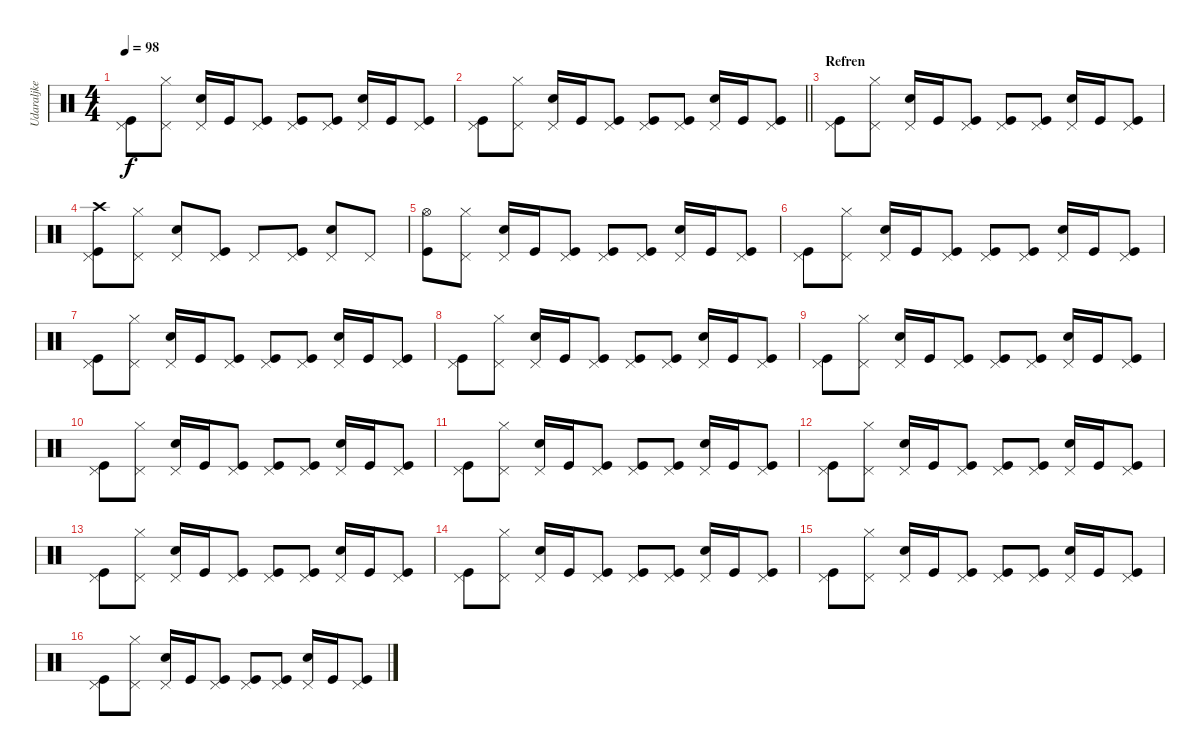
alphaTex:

\track ("Udaraljke" "Udaraljke") {instrument percussion}
\staff {score}
\articulation defaults
\ts (4 4)
\tempo 98
\clef neutral
\ks c
("Pedal Hi-Hat (hit)" "Kick (hit)").8{dy f} ("Pedal Hi-Hat (hit)" "Hi-Hat (closed)").8 ("Pedal Hi-Hat (hit)" "Electric Snare (hit)").16 "Kick (hit)".16 ("Pedal Hi-Hat (hit)" "Kick (hit)").8 ("Pedal Hi-Hat (hit)" "Kick (hit)").8 ("Pedal Hi-Hat (hit)" "Kick (hit)").8 ("Pedal Hi-Hat (hit)" "Electric Snare (hit)").16 "Kick (hit)".16 ("Pedal Hi-Hat (hit)" "Kick (hit)").8 |
\barLineRight lightlight
("Pedal Hi-Hat (hit)" "Kick (hit)").8 ("Pedal Hi-Hat (hit)" "Hi-Hat (closed)").8 ("Pedal Hi-Hat (hit)" "Electric Snare (hit)").16 "Kick (hit)".16 ("Pedal Hi-Hat (hit)" "Kick (hit)").8 ("Pedal Hi-Hat (hit)" "Kick (hit)").8 ("Pedal Hi-Hat (hit)" "Kick (hit)").8 ("Pedal Hi-Hat (hit)" "Electric Snare (hit)").16 "Kick (hit)".16 ("Pedal Hi-Hat (hit)" "Kick (hit)").8 |
\section ("" "Refren")
("Pedal Hi-Hat (hit)" "Kick (hit)").8 ("Pedal Hi-Hat (hit)" "Hi-Hat (closed)").8 ("Pedal Hi-Hat (hit)" "Electric Snare (hit)").16 "Kick (hit)".16 ("Pedal Hi-Hat (hit)" "Kick (hit)").8 ("Pedal Hi-Hat (hit)" "Kick (hit)").8 ("Pedal Hi-Hat (hit)" "Kick (hit)").8 ("Pedal Hi-Hat (hit)" "Electric Snare (hit)").16 "Kick (hit)".16 ("Pedal Hi-Hat (hit)" "Kick (hit)").8 |
("Pedal Hi-Hat (hit)" "Crash high (hit)" "Kick (hit)").8 ("Pedal Hi-Hat (hit)" "Hi-Hat (closed)").8 ("Pedal Hi-Hat (hit)" "Electric Snare (hit)").8 ("Pedal Hi-Hat (hit)" "Kick (hit)").8 "Pedal Hi-Hat (hit)".8 ("Pedal Hi-Hat (hit)" "Kick (hit)").8 ("Pedal Hi-Hat (hit)" "Electric Snare (hit)").8 "Pedal Hi-Hat (hit)".8 |
("Hi-Hat (open)" "Kick (hit)").8 ("Pedal Hi-Hat (hit)" "Hi-Hat (closed)").8 ("Pedal Hi-Hat (hit)" "Electric Snare (hit)").16 "Kick (hit)".16 ("Pedal Hi-Hat (hit)" "Kick (hit)").8 ("Pedal Hi-Hat (hit)" "Kick (hit)").8 ("Pedal Hi-Hat (hit)" "Kick (hit)").8 ("Pedal Hi-Hat (hit)" "Electric Snare (hit)").16 "Kick (hit)".16 ("Pedal Hi-Hat (hit)" "Kick (hit)").8 |
("Pedal Hi-Hat (hit)" "Kick (hit)").8 ("Pedal Hi-Hat (hit)" "Hi-Hat (closed)").8 ("Pedal Hi-Hat (hit)" "Electric Snare (hit)").16 "Kick (hit)".16 ("Pedal Hi-Hat (hit)" "Kick (hit)").8 ("Pedal Hi-Hat (hit)" "Kick (hit)").8 ("Pedal Hi-Hat (hit)" "Kick (hit)").8 ("Pedal Hi-Hat (hit)" "Electric Snare (hit)").16 "Kick (hit)".16 ("Pedal Hi-Hat (hit)" "Kick (hit)").8 |
("Pedal Hi-Hat (hit)" "Kick (hit)").8 ("Pedal Hi-Hat (hit)" "Hi-Hat (closed)").8 ("Pedal Hi-Hat (hit)" "Electric Snare (hit)").16 "Kick (hit)".16 ("Pedal Hi-Hat (hit)" "Kick (hit)").8 ("Pedal Hi-Hat (hit)" "Kick (hit)").8 ("Pedal Hi-Hat (hit)" "Kick (hit)").8 ("Pedal Hi-Hat (hit)" "Electric Snare (hit)").16 "Kick (hit)".16 ("Pedal Hi-Hat (hit)" "Kick (hit)").8 |
("Pedal Hi-Hat (hit)" "Kick (hit)").8 ("Pedal Hi-Hat (hit)" "Hi-Hat (closed)").8 ("Pedal Hi-Hat (hit)" "Electric Snare (hit)").16 "Kick (hit)".16 ("Pedal Hi-Hat (hit)" "Kick (hit)").8 ("Pedal Hi-Hat (hit)" "Kick (hit)").8 ("Pedal Hi-Hat (hit)" "Kick (hit)").8 ("Pedal Hi-Hat (hit)" "Electric Snare (hit)").16 "Kick (hit)".16 ("Pedal Hi-Hat (hit)" "Kick (hit)").8 |
("Pedal Hi-Hat (hit)" "Kick (hit)").8 ("Pedal Hi-Hat (hit)" "Hi-Hat (closed)").8 ("Pedal Hi-Hat (hit)" "Electric Snare (hit)").16 "Kick (hit)".16 ("Pedal Hi-Hat (hit)" "Kick (hit)").8 ("Pedal Hi-Hat (hit)" "Kick (hit)").8 ("Pedal Hi-Hat (hit)" "Kick (hit)").8 ("Pedal Hi-Hat (hit)" "Electric Snare (hit)").16 "Kick (hit)".16 ("Pedal Hi-Hat (hit)" "Kick (hit)").8 |
("Pedal Hi-Hat (hit)" "Kick (hit)").8 ("Pedal Hi-Hat (hit)" "Hi-Hat (closed)").8 ("Pedal Hi-Hat (hit)" "Electric Snare (hit)").16 "Kick (hit)".16 ("Pedal Hi-Hat (hit)" "Kick (hit)").8 ("Pedal Hi-Hat (hit)" "Kick (hit)").8 ("Pedal Hi-Hat (hit)" "Kick (hit)").8 ("Pedal Hi-Hat (hit)" "Electric Snare (hit)").16 "Kick (hit)".16 ("Pedal Hi-Hat (hit)" "Kick (hit)").8 |
("Pedal Hi-Hat (hit)" "Kick (hit)").8 ("Pedal Hi-Hat (hit)" "Hi-Hat (closed)").8 ("Pedal Hi-Hat (hit)" "Electric Snare (hit)").16 "Kick (hit)".16 ("Pedal Hi-Hat (hit)" "Kick (hit)").8 ("Pedal Hi-Hat (hit)" "Kick (hit)").8 ("Pedal Hi-Hat (hit)" "Kick (hit)").8 ("Pedal Hi-Hat (hit)" "Electric Snare (hit)").16 "Kick (hit)".16 ("Pedal Hi-Hat (hit)" "Kick (hit)").8 |
("Pedal Hi-Hat (hit)" "Kick (hit)").8 ("Pedal Hi-Hat (hit)" "Hi-Hat (closed)").8 ("Pedal Hi-Hat (hit)" "Electric Snare (hit)").16 "Kick (hit)".16 ("Pedal Hi-Hat (hit)" "Kick (hit)").8 ("Pedal Hi-Hat (hit)" "Kick (hit)").8 ("Pedal Hi-Hat (hit)" "Kick (hit)").8 ("Pedal Hi-Hat (hit)" "Electric Snare (hit)").16 "Kick (hit)".16 ("Pedal Hi-Hat (hit)" "Kick (hit)").8 |
("Pedal Hi-Hat (hit)" "Kick (hit)").8 ("Pedal Hi-Hat (hit)" "Hi-Hat (closed)").8 ("Pedal Hi-Hat (hit)" "Electric Snare (hit)").16 "Kick (hit)".16 ("Pedal Hi-Hat (hit)" "Kick (hit)").8 ("Pedal Hi-Hat (hit)" "Kick (hit)").8 ("Pedal Hi-Hat (hit)" "Kick (hit)").8 ("Pedal Hi-Hat (hit)" "Electric Snare (hit)").16 "Kick (hit)".16 ("Pedal Hi-Hat (hit)" "Kick (hit)").8 |
("Pedal Hi-Hat (hit)" "Kick (hit)").8 ("Pedal Hi-Hat (hit)" "Hi-Hat (closed)").8 ("Pedal Hi-Hat (hit)" "Electric Snare (hit)").16 "Kick (hit)".16 ("Pedal Hi-Hat (hit)" "Kick (hit)").8 ("Pedal Hi-Hat (hit)" "Kick (hit)").8 ("Pedal Hi-Hat (hit)" "Kick (hit)").8 ("Pedal Hi-Hat (hit)" "Electric Snare (hit)").16 "Kick (hit)".16 ("Pedal Hi-Hat (hit)" "Kick (hit)").8 |
("Pedal Hi-Hat (hit)" "Kick (hit)").8 ("Pedal Hi-Hat (hit)" "Hi-Hat (closed)").8 ("Pedal Hi-Hat (hit)" "Electric Snare (hit)").16 "Kick (hit)".16 ("Pedal Hi-Hat (hit)" "Kick (hit)").8 ("Pedal Hi-Hat (hit)" "Kick (hit)").8 ("Pedal Hi-Hat (hit)" "Kick (hit)").8 ("Pedal Hi-Hat (hit)" "Electric Snare (hit)").16 "Kick (hit)".16 ("Pedal Hi-Hat (hit)" "Kick (hit)").8 |
("Pedal Hi-Hat (hit)" "Kick (hit)").8 ("Pedal Hi-Hat (hit)" "Hi-Hat (closed)").8 ("Pedal Hi-Hat (hit)" "Electric Snare (hit)").16 "Kick (hit)".16 ("Pedal Hi-Hat (hit)" "Kick (hit)").8 ("Pedal Hi-Hat (hit)" "Kick (hit)").8 ("Pedal Hi-Hat (hit)" "Kick (hit)").8 ("Pedal Hi-Hat (hit)" "Electric Snare (hit)").16 "Kick (hit)".16 ("Pedal Hi-Hat (hit)" "Kick (hit)").8
